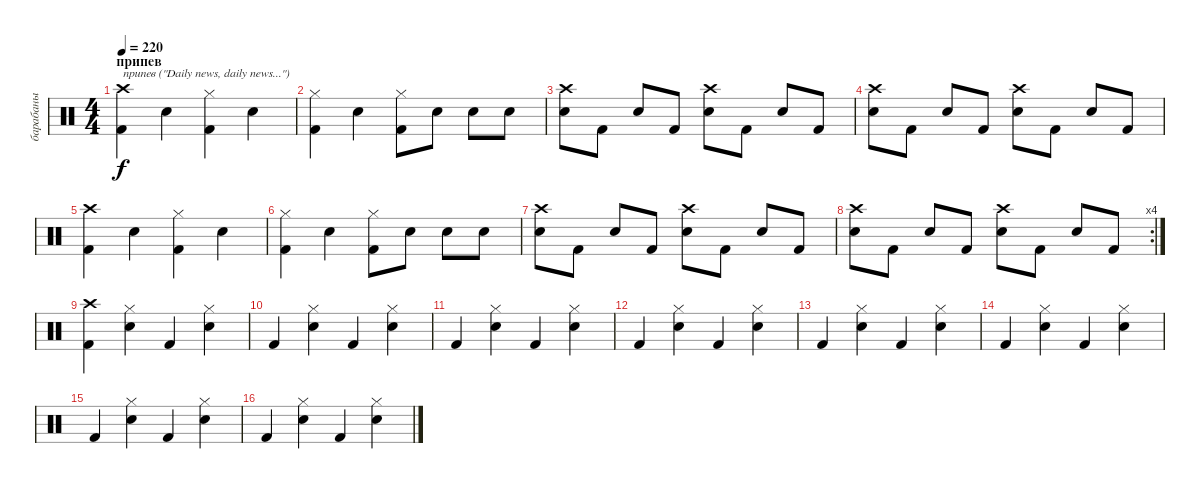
\track ("барабаны" "барабаны") {instrument percussion}
\staff {score}
\articulation defaults
\ts (4 4)
\section ("" "припев")
\tempo 220
\clef neutral
\ks c
("Crash high (hit)" "Kick (hit) 2").4{txt "припев (\"Daily news, daily news...\")" dy f} "Snare (hit) 2".4 ("Hi-Hat (closed)" "Kick (hit) 2").4 "Snare (hit) 2".4 |
("Hi-Hat (closed)" "Kick (hit) 2").4 "Snare (hit) 2".4 ("Hi-Hat (closed)" "Kick (hit) 2").8 "Snare (hit) 2".8 "Snare (hit) 2".8 "Snare (hit) 2".8 |
("Crash high (hit)" "Snare (hit) 2").8 "Kick (hit) 2".8 "Snare (hit) 2".8 "Kick (hit) 2".8 ("Crash high (hit)" "Snare (hit) 2").8 "Kick (hit) 2".8 "Snare (hit) 2".8 "Kick (hit) 2".8 |
("Crash high (hit)" "Snare (hit) 2").8 "Kick (hit) 2".8 "Snare (hit) 2".8 "Kick (hit) 2".8 ("Crash high (hit)" "Snare (hit) 2").8 "Kick (hit) 2".8 "Snare (hit) 2".8 "Kick (hit) 2".8 |
("Crash high (hit)" "Kick (hit) 2").4 "Snare (hit) 2".4 ("Hi-Hat (closed)" "Kick (hit) 2").4 "Snare (hit) 2".4 |
("Hi-Hat (closed)" "Kick (hit) 2").4 "Snare (hit) 2".4 ("Hi-Hat (closed)" "Kick (hit) 2").8 "Snare (hit) 2".8 "Snare (hit) 2".8 "Snare (hit) 2".8 |
("Crash high (hit)" "Snare (hit) 2").8 "Kick (hit) 2".8 "Snare (hit) 2".8 "Kick (hit) 2".8 ("Crash high (hit)" "Snare (hit) 2").8 "Kick (hit) 2".8 "Snare (hit) 2".8 "Kick (hit) 2".8 |
\rc 4
("Crash high (hit)" "Snare (hit) 2").8 "Kick (hit) 2".8 "Snare (hit) 2".8 "Kick (hit) 2".8 ("Crash high (hit)" "Snare (hit) 2").8 "Kick (hit) 2".8 "Snare (hit) 2".8 "Kick (hit) 2".8 |
("Crash high (hit)" "Kick (hit) 2").4 ("Hi-Hat (closed)" "Snare (hit) 2").4 "Kick (hit) 2".4 ("Hi-Hat (closed)" "Snare (hit) 2").4 |
"Kick (hit) 2".4 ("Hi-Hat (closed)" "Snare (hit) 2").4 "Kick (hit) 2".4 ("Hi-Hat (closed)" "Snare (hit) 2").4 |
"Kick (hit) 2".4 ("Hi-Hat (closed)" "Snare (hit) 2").4 "Kick (hit) 2".4 ("Hi-Hat (closed)" "Snare (hit) 2").4 |
"Kick (hit) 2".4 ("Hi-Hat (closed)" "Snare (hit) 2").4 "Kick (hit) 2".4 ("Hi-Hat (closed)" "Snare (hit) 2").4 |
"Kick (hit) 2".4 ("Hi-Hat (closed)" "Snare (hit) 2").4 "Kick (hit) 2".4 ("Hi-Hat (closed)" "Snare (hit) 2").4 |
"Kick (hit) 2".4 ("Hi-Hat (closed)" "Snare (hit) 2").4 "Kick (hit) 2".4 ("Hi-Hat (closed)" "Snare (hit) 2").4 |
"Kick (hit) 2".4 ("Hi-Hat (closed)" "Snare (hit) 2").4 "Kick (hit) 2".4 ("Hi-Hat (closed)" "Snare (hit) 2").4 |
"Kick (hit) 2".4 ("Hi-Hat (closed)" "Snare (hit) 2").4 "Kick (hit) 2".4 ("Hi-Hat (closed)" "Snare (hit) 2").4
